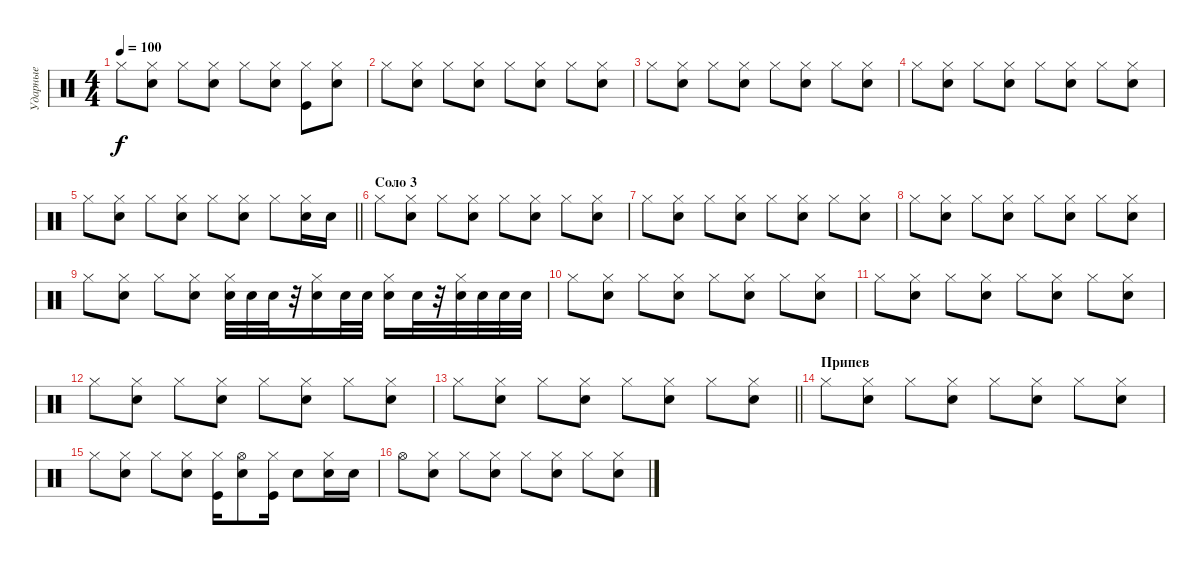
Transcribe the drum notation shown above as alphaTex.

\track ("Ударные" "Ударные") {instrument percussion}
\staff {score}
\articulation defaults
\ts (4 4)
\tempo 100
\clef neutral
\ks c "Hi-Hat (closed)".8{dy f}
("Hi-Hat (closed)" "Snare (hit) 2").8 "Hi-Hat (closed)".8 ("Hi-Hat (closed)" "Snare (hit) 2").8 "Hi-Hat (closed)".8 ("Hi-Hat (closed)" "Snare (hit) 2").8 ("Hi-Hat (closed)" "Kick (hit)").8 ("Hi-Hat (closed)" "Snare (hit) 2").8 |
"Hi-Hat (closed)".8 ("Hi-Hat (closed)" "Snare (hit) 2").8 "Hi-Hat (closed)".8 ("Hi-Hat (closed)" "Snare (hit) 2").8 "Hi-Hat (closed)".8 ("Hi-Hat (closed)" "Snare (hit) 2").8 "Hi-Hat (closed)".8 ("Hi-Hat (closed)" "Snare (hit) 2").8 |
"Hi-Hat (closed)".8 ("Hi-Hat (closed)" "Snare (hit) 2").8 "Hi-Hat (closed)".8 ("Hi-Hat (closed)" "Snare (hit) 2").8 "Hi-Hat (closed)".8 ("Hi-Hat (closed)" "Snare (hit) 2").8 "Hi-Hat (closed)".8 ("Hi-Hat (closed)" "Snare (hit) 2").8 |
"Hi-Hat (closed)".8 ("Hi-Hat (closed)" "Snare (hit) 2").8 "Hi-Hat (closed)".8 ("Hi-Hat (closed)" "Snare (hit) 2").8 "Hi-Hat (closed)".8 ("Hi-Hat (closed)" "Snare (hit) 2").8 "Hi-Hat (closed)".8 ("Hi-Hat (closed)" "Snare (hit) 2").8 |
\barLineRight lightlight "Hi-Hat (closed)".8
("Hi-Hat (closed)" "Snare (hit) 2").8 "Hi-Hat (closed)".8 ("Hi-Hat (closed)" "Snare (hit) 2").8 "Hi-Hat (closed)".8 ("Hi-Hat (closed)" "Snare (hit) 2").8 "Hi-Hat (closed)".8 ("Hi-Hat (closed)" "Electric Snare (hit)").16 "Electric Snare (hit)".16 |
\section ("" "Соло 3")
"Hi-Hat (closed)".8 ("Hi-Hat (closed)" "Snare (hit) 2").8 "Hi-Hat (closed)".8 ("Hi-Hat (closed)" "Snare (hit) 2").8 "Hi-Hat (closed)".8 ("Hi-Hat (closed)" "Snare (hit) 2").8 "Hi-Hat (closed)".8 ("Hi-Hat (closed)" "Snare (hit) 2").8 |
"Hi-Hat (closed)".8 ("Hi-Hat (closed)" "Snare (hit) 2").8 "Hi-Hat (closed)".8 ("Hi-Hat (closed)" "Snare (hit) 2").8 "Hi-Hat (closed)".8 ("Hi-Hat (closed)" "Snare (hit) 2").8 "Hi-Hat (closed)".8 ("Hi-Hat (closed)" "Snare (hit) 2").8 |
"Hi-Hat (closed)".8 ("Hi-Hat (closed)" "Snare (hit) 2").8 "Hi-Hat (closed)".8 ("Hi-Hat (closed)" "Snare (hit) 2").8 "Hi-Hat (closed)".8 ("Hi-Hat (closed)" "Snare (hit) 2").8 "Hi-Hat (closed)".8 ("Hi-Hat (closed)" "Snare (hit) 2").8 |
"Hi-Hat (closed)".8 ("Hi-Hat (closed)" "Snare (hit) 2").8 "Hi-Hat (closed)".8 ("Hi-Hat (closed)" "Snare (hit) 2").8 ("Hi-Hat (closed)" "Snare (hit) 2").32 "Snare (hit) 2".32 "Snare (hit) 2".32 r.32 ("Hi-Hat (closed)" "Snare (hit) 2").16 "Snare (hit) 2".32 "Snare (hit) 2".32 ("Hi-Hat (closed)" "Snare (hit) 2").16 "Snare (hit) 2".32 r.32 ("Hi-Hat (closed)" "Snare (hit) 2").32 "Snare (hit) 2".32 "Snare (hit) 2".32 "Snare (hit) 2".32 |
"Hi-Hat (closed)".8 ("Hi-Hat (closed)" "Snare (hit) 2").8 "Hi-Hat (closed)".8 ("Hi-Hat (closed)" "Snare (hit) 2").8 "Hi-Hat (closed)".8 ("Hi-Hat (closed)" "Snare (hit) 2").8 "Hi-Hat (closed)".8 ("Hi-Hat (closed)" "Snare (hit) 2").8 |
"Hi-Hat (closed)".8 ("Hi-Hat (closed)" "Snare (hit) 2").8 "Hi-Hat (closed)".8 ("Hi-Hat (closed)" "Snare (hit) 2").8 "Hi-Hat (closed)".8 ("Hi-Hat (closed)" "Snare (hit) 2").8 "Hi-Hat (closed)".8 ("Hi-Hat (closed)" "Snare (hit) 2").8 |
"Hi-Hat (closed)".8 ("Hi-Hat (closed)" "Snare (hit) 2").8 "Hi-Hat (closed)".8 ("Hi-Hat (closed)" "Snare (hit) 2").8 "Hi-Hat (closed)".8 ("Hi-Hat (closed)" "Snare (hit) 2").8 "Hi-Hat (closed)".8 ("Hi-Hat (closed)" "Snare (hit) 2").8 |
\barLineRight lightlight "Hi-Hat (closed)".8
("Hi-Hat (closed)" "Snare (hit) 2").8 "Hi-Hat (closed)".8 ("Hi-Hat (closed)" "Snare (hit) 2").8 "Hi-Hat (closed)".8 ("Hi-Hat (closed)" "Snare (hit) 2").8 "Hi-Hat (closed)".8 ("Hi-Hat (closed)" "Snare (hit) 2").8 |
\section ("" "Припев")
"Hi-Hat (closed)".8 ("Hi-Hat (closed)" "Snare (hit) 2").8 "Hi-Hat (closed)".8 ("Hi-Hat (closed)" "Snare (hit) 2").8 "Hi-Hat (closed)".8 ("Hi-Hat (closed)" "Snare (hit) 2").8 "Hi-Hat (closed)".8 ("Hi-Hat (closed)" "Snare (hit) 2").8 |
"Hi-Hat (closed)".8 ("Hi-Hat (closed)" "Snare (hit) 2").8 "Hi-Hat (closed)".8 ("Hi-Hat (closed)" "Snare (hit) 2").8 ("Hi-Hat (closed)" "Kick (hit)").16 ("Hi-Hat (open)" "Electric Snare (hit)").8 ("Hi-Hat (closed)" "Kick (hit)").16 "Electric Snare (hit)".8 ("Hi-Hat (closed)" "Electric Snare (hit)").16 "Electric Snare (hit)".16 |
"Hi-Hat (open)".8 ("Hi-Hat (closed)" "Snare (hit) 2").8 "Hi-Hat (closed)".8 ("Hi-Hat (closed)" "Snare (hit) 2").8 "Hi-Hat (closed)".8 ("Hi-Hat (closed)" "Snare (hit) 2").8 "Hi-Hat (closed)".8 ("Hi-Hat (closed)" "Snare (hit) 2").8
